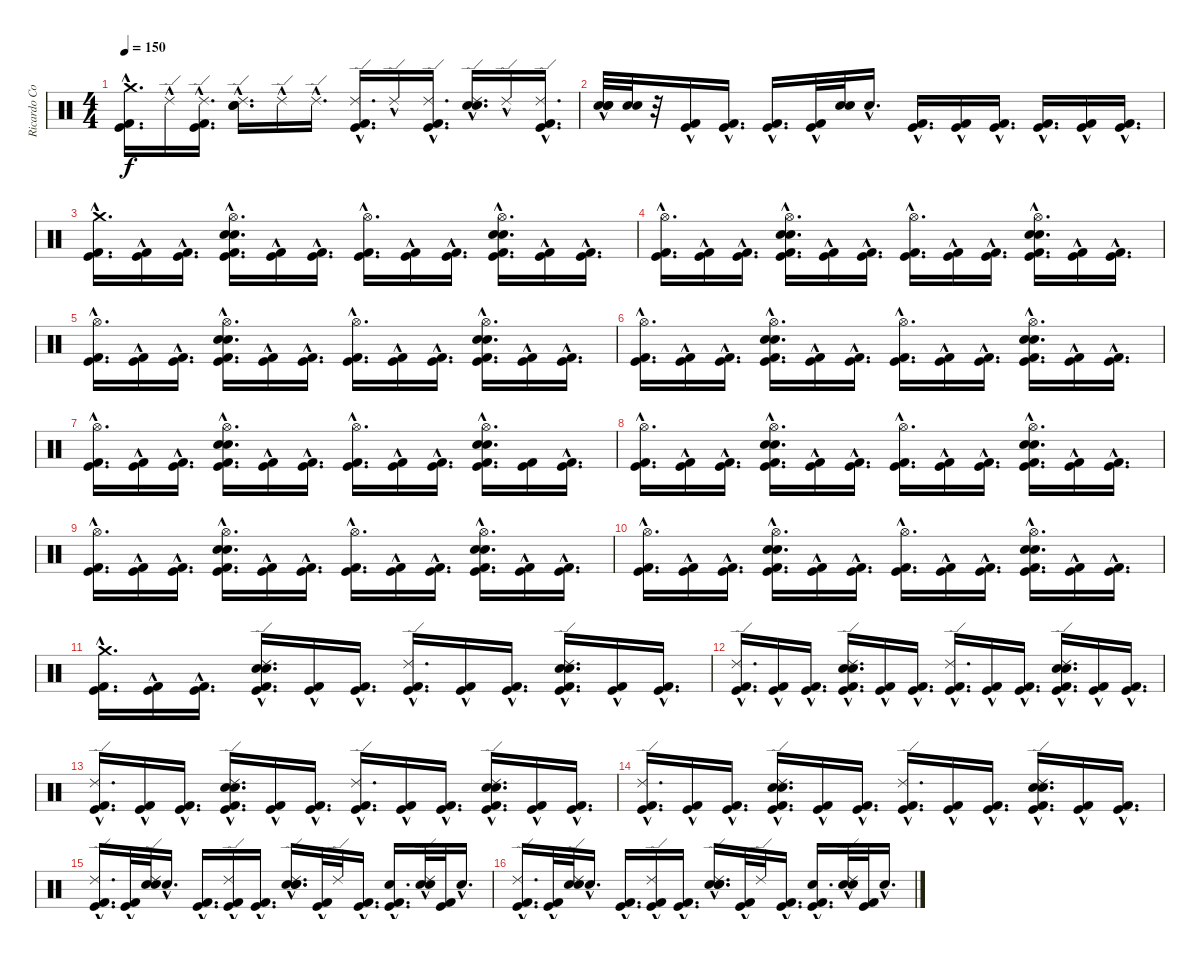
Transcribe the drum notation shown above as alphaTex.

\track ("Ricardo Confessori" "Ricardo Co") {instrument percussion}
\staff {score}
\articulation defaults
\ts (4 4)
\tempo 150
\clef neutral
\ks c
("Kick (hit)" "Kick (hit) 2" "Crash medium (hit)"{hac}).16{d dy f} "Ride (edge) 2"{hac}.16 ("Kick (hit) 2"{hac} "Kick (hit)"{hac} "Ride (edge) 2"{hac}).16{d} ("Electric Snare (hit)" "Snare (hit) 2" "Ride (edge) 2"{hac}).16{d} "Ride (edge) 2"{hac}.16 "Ride (edge) 2"{hac}.16{d} ("Kick (hit) 2" "Kick (hit)" "Ride (edge) 2"{hac}).16{d} "Ride (edge) 2"{hac}.16 ("Kick (hit) 2"{hac} "Kick (hit)"{hac} "Ride (edge) 2"{hac}).16{d} ("Electric Snare (hit)" "Snare (hit) 2" "Ride (edge) 2"{hac}).16{d} "Ride (edge) 2"{hac}.16 ("Kick (hit)"{hac} "Kick (hit) 2"{hac} "Ride (edge) 2"{hac}).16{d} |
("Snare (hit)"{hac} "Electric Snare (hit)" "Snare (hit) 2").32 ("Electric Snare (hit)" "Snare (hit) 2").32 r.32 ("Kick (hit) 2"{hac} "Kick (hit)"{hac}).16 ("Kick (hit) 2"{hac} "Kick (hit)"{hac}).16{d} ("Kick (hit) 2"{hac} "Kick (hit)"{hac}).16{d} ("Kick (hit) 2"{hac} "Kick (hit)"{hac}).32 ("Electric Snare (hit)" "Snare (hit) 2").32 "Snare (hit)"{hac}.16{d} ("Kick (hit) 2"{hac} "Kick (hit)"{hac}).16{d} ("Kick (hit) 2"{hac} "Kick (hit)"{hac}).16 ("Kick (hit) 2"{hac} "Kick (hit)"{hac}).16{d} ("Kick (hit) 2"{hac} "Kick (hit)"{hac}).16{d} ("Kick (hit) 2"{hac} "Kick (hit)"{hac}).16 ("Kick (hit) 2"{hac} "Kick (hit)"{hac}).16{d} |
("Crash medium (hit)"{hac} "Kick (hit) 2"{hac} "Kick (hit)"{hac}).16{d} ("Kick (hit) 2"{hac} "Kick (hit)"{hac}).16 ("Kick (hit) 2"{hac} "Kick (hit)"{hac}).16{d} ("Hi-Hat (open)"{hac} "Electric Snare (hit)"{hac} "Snare (hit) 2"{hac} "Kick (hit)"{hac} "Kick (hit) 2"{hac}).16{d} ("Kick (hit) 2"{hac} "Kick (hit)"{hac}).16 ("Kick (hit) 2"{hac} "Kick (hit)"{hac}).16{d} ("Hi-Hat (open)"{hac} "Kick (hit) 2"{hac} "Kick (hit)"{hac}).16{d} ("Kick (hit) 2"{hac} "Kick (hit)"{hac}).16 ("Kick (hit) 2"{hac} "Kick (hit)"{hac}).16{d} ("Hi-Hat (open)"{hac} "Snare (hit) 2"{hac} "Electric Snare (hit)"{hac} "Kick (hit) 2"{hac} "Kick (hit)"{hac}).16{d} ("Kick (hit) 2"{hac} "Kick (hit)"{hac}).16 ("Kick (hit) 2"{hac} "Kick (hit)"{hac}).16{d} |
("Hi-Hat (open)"{hac} "Kick (hit) 2"{hac} "Kick (hit)"{hac}).16{d} ("Kick (hit) 2"{hac} "Kick (hit)"{hac}).16 ("Kick (hit) 2"{hac} "Kick (hit)"{hac}).16{d} ("Hi-Hat (open)"{hac} "Snare (hit) 2"{hac} "Electric Snare (hit)"{hac} "Kick (hit) 2"{hac} "Kick (hit)"{hac}).16{d} ("Kick (hit) 2"{hac} "Kick (hit)"{hac}).16 ("Kick (hit) 2"{hac} "Kick (hit)"{hac}).16{d} ("Hi-Hat (open)"{hac} "Kick (hit) 2"{hac} "Kick (hit)"{hac}).16{d} ("Kick (hit) 2"{hac} "Kick (hit)"{hac}).16 ("Kick (hit) 2"{hac} "Kick (hit)"{hac}).16{d} ("Hi-Hat (open)"{hac} "Electric Snare (hit)"{hac} "Snare (hit) 2"{hac} "Kick (hit) 2"{hac} "Kick (hit)"{hac}).16{d} ("Kick (hit) 2"{hac} "Kick (hit)"{hac}).16 ("Kick (hit) 2"{hac} "Kick (hit)"{hac}).16{d} |
("Hi-Hat (open)"{hac} "Kick (hit) 2"{hac} "Kick (hit)"{hac}).16{d} ("Kick (hit) 2"{hac} "Kick (hit)"{hac}).16 ("Kick (hit) 2"{hac} "Kick (hit)"{hac}).16{d} ("Hi-Hat (open)"{hac} "Snare (hit) 2"{hac} "Electric Snare (hit)"{hac} "Kick (hit) 2"{hac} "Kick (hit)"{hac}).16{d} ("Kick (hit) 2"{hac} "Kick (hit)"{hac}).16 ("Kick (hit) 2"{hac} "Kick (hit)"{hac}).16{d} ("Hi-Hat (open)"{hac} "Kick (hit) 2"{hac} "Kick (hit)"{hac}).16{d} ("Kick (hit) 2"{hac} "Kick (hit)"{hac}).16 ("Kick (hit) 2"{hac} "Kick (hit)"{hac}).16{d} ("Hi-Hat (open)"{hac} "Electric Snare (hit)"{hac} "Snare (hit) 2"{hac} "Kick (hit) 2"{hac} "Kick (hit)"{hac}).16{d} ("Kick (hit) 2"{hac} "Kick (hit)"{hac}).16 ("Kick (hit) 2"{hac} "Kick (hit)"{hac}).16{d} |
("Hi-Hat (open)"{hac} "Kick (hit) 2"{hac} "Kick (hit)"{hac}).16{d} ("Kick (hit) 2"{hac} "Kick (hit)"{hac}).16 ("Kick (hit) 2"{hac} "Kick (hit)"{hac}).16{d} ("Hi-Hat (open)"{hac} "Snare (hit) 2"{hac} "Electric Snare (hit)"{hac} "Kick (hit) 2"{hac} "Kick (hit)"{hac}).16{d} ("Kick (hit) 2"{hac} "Kick (hit)"{hac}).16 ("Kick (hit) 2"{hac} "Kick (hit)"{hac}).16{d} ("Hi-Hat (open)"{hac} "Kick (hit) 2"{hac} "Kick (hit)"{hac}).16{d} ("Kick (hit) 2"{hac} "Kick (hit)"{hac}).16 ("Kick (hit) 2"{hac} "Kick (hit)"{hac}).16{d} ("Hi-Hat (open)"{hac} "Electric Snare (hit)"{hac} "Snare (hit) 2"{hac} "Kick (hit) 2"{hac} "Kick (hit)"{hac}).16{d} ("Kick (hit) 2"{hac} "Kick (hit)"{hac}).16 ("Kick (hit) 2"{hac} "Kick (hit)"{hac}).16{d} |
("Hi-Hat (open)"{hac} "Kick (hit) 2"{hac} "Kick (hit)"{hac}).16{d} ("Kick (hit) 2"{hac} "Kick (hit)"{hac}).16 ("Kick (hit) 2"{hac} "Kick (hit)"{hac}).16{d} ("Hi-Hat (open)"{hac} "Snare (hit) 2"{hac} "Electric Snare (hit)"{hac} "Kick (hit) 2"{hac} "Kick (hit)"{hac}).16{d} ("Kick (hit) 2"{hac} "Kick (hit)"{hac}).16 ("Kick (hit) 2"{hac} "Kick (hit)"{hac}).16{d} ("Hi-Hat (open)"{hac} "Kick (hit) 2"{hac} "Kick (hit)"{hac}).16{d} ("Kick (hit) 2"{hac} "Kick (hit)"{hac}).16 ("Kick (hit) 2"{hac} "Kick (hit)"{hac}).16{d} ("Hi-Hat (open)"{hac} "Electric Snare (hit)"{hac} "Snare (hit) 2"{hac} "Kick (hit) 2"{hac} "Kick (hit)"{hac}).16{d} ("Kick (hit) 2" "Kick (hit)").16 ("Kick (hit) 2"{hac} "Kick (hit)"{hac}).16{d} |
("Hi-Hat (open)"{hac} "Kick (hit) 2" "Kick (hit)").16{d} ("Kick (hit) 2"{hac} "Kick (hit)"{hac}).16 ("Kick (hit) 2"{hac} "Kick (hit)"{hac}).16{d} ("Hi-Hat (open)"{hac} "Snare (hit) 2"{hac} "Electric Snare (hit)"{hac} "Kick (hit) 2"{hac} "Kick (hit)"{hac}).16{d} ("Kick (hit) 2"{hac} "Kick (hit)"{hac}).16 ("Kick (hit) 2"{hac} "Kick (hit)"{hac}).16{d} ("Hi-Hat (open)"{hac} "Kick (hit) 2"{hac} "Kick (hit)"{hac}).16{d} ("Kick (hit) 2"{hac} "Kick (hit)"{hac}).16 ("Kick (hit) 2"{hac} "Kick (hit)"{hac}).16{d} ("Hi-Hat (open)"{hac} "Electric Snare (hit)"{hac} "Snare (hit) 2"{hac} "Kick (hit) 2"{hac} "Kick (hit)"{hac}).16{d} ("Kick (hit) 2"{hac} "Kick (hit)"{hac}).16 ("Kick (hit) 2"{hac} "Kick (hit)"{hac}).16{d} |
("Hi-Hat (open)"{hac} "Kick (hit) 2"{hac} "Kick (hit)"{hac}).16{d} ("Kick (hit) 2"{hac} "Kick (hit)"{hac}).16 ("Kick (hit) 2"{hac} "Kick (hit)"{hac}).16{d} ("Hi-Hat (open)"{hac} "Snare (hit) 2"{hac} "Electric Snare (hit)"{hac} "Kick (hit) 2"{hac} "Kick (hit)"{hac}).16{d} ("Kick (hit) 2"{hac} "Kick (hit)"{hac}).16 ("Kick (hit) 2"{hac} "Kick (hit)"{hac}).16{d} ("Hi-Hat (open)"{hac} "Kick (hit) 2"{hac} "Kick (hit)"{hac}).16{d} ("Kick (hit) 2"{hac} "Kick (hit)"{hac}).16 ("Kick (hit) 2"{hac} "Kick (hit)"{hac}).16{d} ("Hi-Hat (open)"{hac} "Electric Snare (hit)"{hac} "Snare (hit) 2"{hac} "Kick (hit) 2"{hac} "Kick (hit)"{hac}).16{d} ("Kick (hit) 2"{hac} "Kick (hit)"{hac}).16 ("Kick (hit) 2"{hac} "Kick (hit)"{hac}).16{d} |
("Hi-Hat (open)"{hac} "Kick (hit) 2"{hac} "Kick (hit)"{hac}).16{d} ("Kick (hit) 2"{hac} "Kick (hit)"{hac}).16 ("Kick (hit) 2"{hac} "Kick (hit)"{hac}).16{d} ("Hi-Hat (open)"{hac} "Snare (hit) 2"{hac} "Electric Snare (hit)"{hac} "Kick (hit) 2"{hac} "Kick (hit)"{hac}).16{d} ("Kick (hit) 2"{hac} "Kick (hit)"{hac}).16 ("Kick (hit) 2"{hac} "Kick (hit)"{hac}).16{d} ("Hi-Hat (open)"{hac} "Kick (hit) 2"{hac} "Kick (hit)"{hac}).16{d} ("Kick (hit) 2"{hac} "Kick (hit)"{hac}).16 ("Kick (hit) 2"{hac} "Kick (hit)"{hac}).16{d} ("Hi-Hat (open)"{hac} "Electric Snare (hit)"{hac} "Snare (hit) 2"{hac} "Kick (hit) 2"{hac} "Kick (hit)"{hac}).16{d} ("Kick (hit) 2"{hac} "Kick (hit)"{hac}).16 ("Kick (hit) 2"{hac} "Kick (hit)"{hac}).16{d} |
("Crash medium (hit)"{hac} "Kick (hit) 2"{hac} "Kick (hit)"{hac}).16{d} ("Kick (hit) 2"{hac} "Kick (hit)"{hac}).16 ("Kick (hit) 2"{hac} "Kick (hit)"{hac}).16{d} ("Snare (hit) 2"{hac} "Electric Snare (hit)"{hac} "Kick (hit) 2"{hac} "Ride (edge) 2"{hac} "Kick (hit)"{hac}).16{d} ("Kick (hit) 2"{hac} "Kick (hit)"{hac}).16 ("Kick (hit) 2"{hac} "Kick (hit)"{hac}).16{d} ("Kick (hit) 2"{hac} "Ride (edge) 2"{hac} "Kick (hit)"{hac}).16{d} ("Kick (hit) 2"{hac} "Kick (hit)"{hac}).16 ("Kick (hit) 2"{hac} "Kick (hit)"{hac}).16{d} ("Electric Snare (hit)"{hac} "Snare (hit) 2"{hac} "Kick (hit) 2"{hac} "Ride (edge) 2"{hac} "Kick (hit)"{hac}).16{d} ("Kick (hit) 2"{hac} "Kick (hit)"{hac}).16 ("Kick (hit) 2"{hac} "Kick (hit)"{hac}).16{d} |
("Kick (hit) 2"{hac} "Ride (edge) 2"{hac} "Kick (hit)"{hac}).16{d} ("Kick (hit) 2"{hac} "Kick (hit)"{hac}).16 ("Kick (hit) 2"{hac} "Kick (hit)"{hac}).16{d} ("Snare (hit) 2"{hac} "Electric Snare (hit)"{hac} "Kick (hit) 2"{hac} "Ride (edge) 2"{hac} "Kick (hit)"{hac}).16{d} ("Kick (hit) 2"{hac} "Kick (hit)"{hac}).16 ("Kick (hit) 2"{hac} "Kick (hit)"{hac}).16{d} ("Kick (hit) 2"{hac} "Ride (edge) 2"{hac} "Kick (hit)"{hac}).16{d} ("Kick (hit) 2"{hac} "Kick (hit)"{hac}).16 ("Kick (hit) 2"{hac} "Kick (hit)"{hac}).16{d} ("Electric Snare (hit)"{hac} "Snare (hit) 2"{hac} "Kick (hit) 2"{hac} "Ride (edge) 2"{hac} "Kick (hit)"{hac}).16{d} ("Kick (hit) 2"{hac} "Kick (hit)"{hac}).16 ("Kick (hit) 2"{hac} "Kick (hit)"{hac}).16{d} |
("Kick (hit) 2"{hac} "Ride (edge) 2"{hac} "Kick (hit)"{hac}).16{d} ("Kick (hit) 2"{hac} "Kick (hit)"{hac}).16 ("Kick (hit) 2"{hac} "Kick (hit)"{hac}).16{d} ("Snare (hit) 2"{hac} "Electric Snare (hit)"{hac} "Kick (hit) 2"{hac} "Ride (edge) 2"{hac} "Kick (hit)"{hac}).16{d} ("Kick (hit) 2"{hac} "Kick (hit)"{hac}).16 ("Kick (hit) 2"{hac} "Kick (hit)"{hac}).16{d} ("Kick (hit) 2"{hac} "Ride (edge) 2"{hac} "Kick (hit)"{hac}).16{d} ("Kick (hit) 2"{hac} "Kick (hit)"{hac}).16 ("Kick (hit) 2"{hac} "Kick (hit)"{hac}).16{d} ("Electric Snare (hit)"{hac} "Snare (hit) 2"{hac} "Kick (hit) 2"{hac} "Ride (edge) 2"{hac} "Kick (hit)"{hac}).16{d} ("Kick (hit) 2"{hac} "Kick (hit)"{hac}).16 ("Kick (hit) 2"{hac} "Kick (hit)"{hac}).16{d} |
("Kick (hit) 2"{hac} "Ride (edge) 2"{hac} "Kick (hit)"{hac}).16{d} ("Kick (hit) 2"{hac} "Kick (hit)"{hac}).16 ("Kick (hit) 2"{hac} "Kick (hit)"{hac}).16{d} ("Snare (hit) 2"{hac} "Electric Snare (hit)"{hac} "Kick (hit) 2"{hac} "Ride (edge) 2"{hac} "Kick (hit)"{hac}).16{d} ("Kick (hit) 2"{hac} "Kick (hit)"{hac}).16 ("Kick (hit) 2"{hac} "Kick (hit)"{hac}).16{d} ("Kick (hit) 2"{hac} "Ride (edge) 2"{hac} "Kick (hit)"{hac}).16{d} ("Kick (hit) 2"{hac} "Kick (hit)"{hac}).16 ("Kick (hit) 2"{hac} "Kick (hit)"{hac}).16{d} ("Electric Snare (hit)"{hac} "Snare (hit) 2"{hac} "Kick (hit) 2"{hac} "Ride (edge) 2"{hac} "Kick (hit)"{hac}).16{d} ("Kick (hit) 2"{hac} "Kick (hit)"{hac}).16 ("Kick (hit) 2"{hac} "Kick (hit)"{hac}).16{d} |
("Ride (edge) 2" "Kick (hit) 2"{hac} "Kick (hit)"{hac}).16{d} ("Kick (hit) 2"{hac} "Kick (hit)"{hac}).32 ("Snare (hit) 2" "Electric Snare (hit)" "Ride (edge) 2").32 "Snare (hit)"{hac}.16{d} ("Kick (hit) 2"{hac} "Kick (hit)"{hac}).16{d} ("Ride (edge) 2"{hac} "Kick (hit) 2"{hac} "Kick (hit)"{hac}).16 ("Kick (hit) 2"{hac} "Kick (hit)"{hac}).16{d} ("Electric Snare (hit)" "Snare (hit) 2" "Ride (edge) 2" "Snare (hit)"{hac}).16{d} ("Kick (hit) 2"{hac} "Kick (hit)"{hac}).32 "Ride (edge) 2".32 ("Kick (hit) 2"{hac} "Kick (hit)"{hac}).16{d} ("Snare (hit)"{hac} "Kick (hit) 2" "Kick (hit)").16{d} ("Snare (hit) 2"{hac} "Electric Snare (hit)"{hac} "Ride (edge) 2"{hac}).32 ("Kick (hit) 2" "Kick (hit)").32 "Snare (hit)"{hac}.16{d} |
("Ride (edge) 2" "Kick (hit) 2"{hac} "Kick (hit)"{hac}).16{d} ("Kick (hit) 2"{hac} "Kick (hit)"{hac}).32 ("Snare (hit) 2" "Electric Snare (hit)" "Ride (edge) 2").32 "Snare (hit)"{hac}.16{d} ("Kick (hit) 2"{hac} "Kick (hit)"{hac}).16{d} ("Ride (edge) 2"{hac} "Kick (hit) 2"{hac} "Kick (hit)"{hac}).16 ("Kick (hit) 2"{hac} "Kick (hit)"{hac}).16{d} ("Electric Snare (hit)" "Snare (hit) 2" "Ride (edge) 2" "Snare (hit)"{hac}).16{d} ("Kick (hit) 2"{hac} "Kick (hit)"{hac}).32 "Ride (edge) 2".32 ("Kick (hit) 2"{hac} "Kick (hit)"{hac}).16{d} ("Snare (hit)"{hac} "Kick (hit) 2" "Kick (hit)").16{d} ("Snare (hit) 2"{hac} "Electric Snare (hit)"{hac} "Ride (edge) 2"{hac}).32 ("Kick (hit) 2" "Kick (hit)").32 "Snare (hit)"{hac}.16{d}
